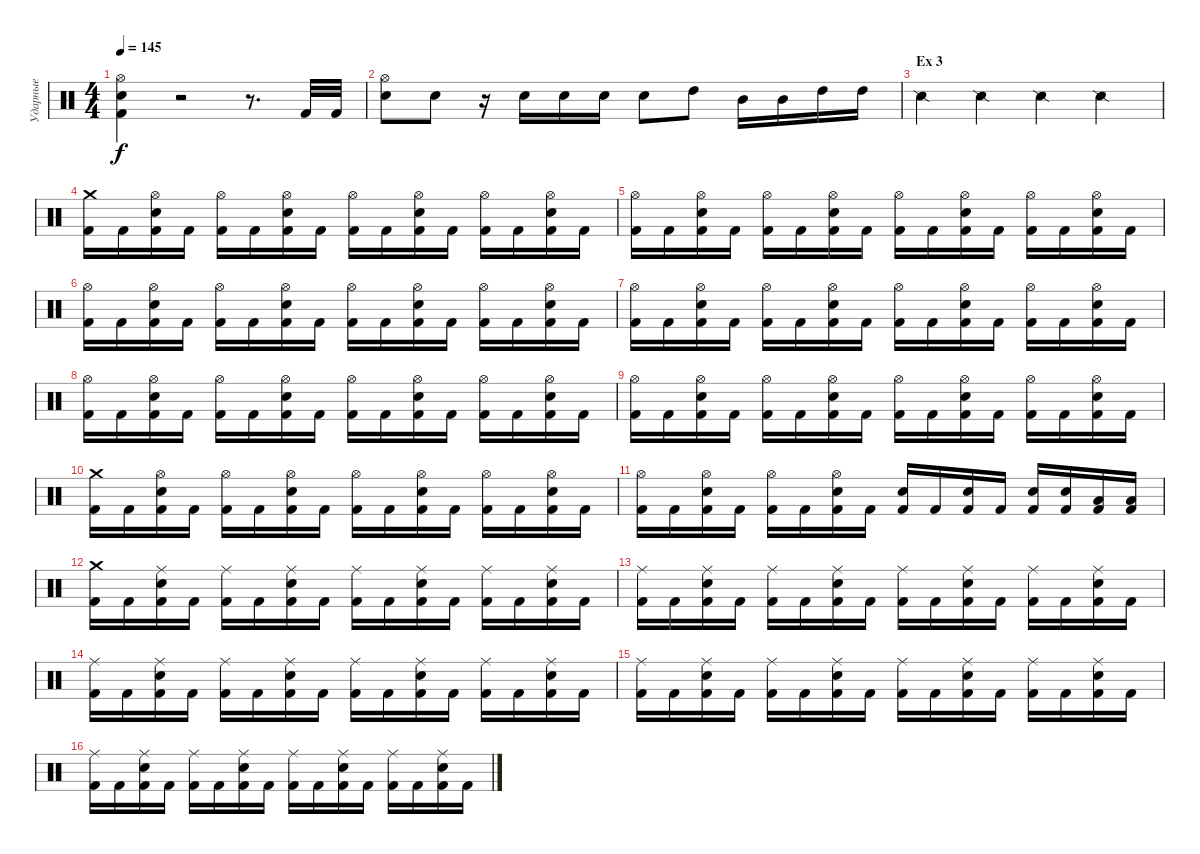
\track ("Ударные" "Ударные") {instrument percussion}
\staff {score}
\articulation defaults
\ts (4 4)
\tempo 145
\clef neutral
\ks c
("Kick (hit) 2" "Snare (hit) 2" "Hi-Hat (open)").4{dy f} r.2 r.8{d} "Kick (hit) 2".32 "Kick (hit) 2".32 |
("Snare (hit) 2" "Hi-Hat (open)").8 "Snare (hit) 2".8 r.16 "Snare (hit) 2".16 "Snare (hit) 2".16 "Snare (hit) 2".16 "Snare (hit) 2".8 "High Tom (hit)".8 "Mid Tom (hit)".16 "Mid Tom (hit)".16 "High Tom (hit)".16 "High Tom (hit)".16 |
\section ("" "Ex 3")
"Snare (side stick) 2".4 "Snare (side stick) 2".4 "Snare (side stick) 2".4 "Snare (side stick) 2".4 |
("Kick (hit) 2" "Crash medium (hit)").16 "Kick (hit) 2".16 ("Kick (hit) 2" "Snare (hit) 2" "Hi-Hat (open)").16 "Kick (hit) 2".16 ("Kick (hit) 2" "Hi-Hat (open)").16 "Kick (hit) 2".16 ("Kick (hit) 2" "Snare (hit) 2" "Hi-Hat (open)").16 "Kick (hit) 2".16 ("Kick (hit) 2" "Hi-Hat (open)").16 "Kick (hit) 2".16 ("Kick (hit) 2" "Snare (hit) 2" "Hi-Hat (open)").16 "Kick (hit) 2".16 ("Kick (hit) 2" "Hi-Hat (open)").16 "Kick (hit) 2".16 ("Kick (hit) 2" "Snare (hit) 2" "Hi-Hat (open)").16 "Kick (hit) 2".16 |
("Hi-Hat (open)" "Kick (hit) 2").16 "Kick (hit) 2".16 ("Kick (hit) 2" "Snare (hit) 2" "Hi-Hat (open)").16 "Kick (hit) 2".16 ("Kick (hit) 2" "Hi-Hat (open)").16 "Kick (hit) 2".16 ("Kick (hit) 2" "Snare (hit) 2" "Hi-Hat (open)").16 "Kick (hit) 2".16 ("Kick (hit) 2" "Hi-Hat (open)").16 "Kick (hit) 2".16 ("Kick (hit) 2" "Snare (hit) 2" "Hi-Hat (open)").16 "Kick (hit) 2".16 ("Kick (hit) 2" "Hi-Hat (open)").16 "Kick (hit) 2".16 ("Kick (hit) 2" "Snare (hit) 2" "Hi-Hat (open)").16 "Kick (hit) 2".16 |
("Hi-Hat (open)" "Kick (hit) 2").16 "Kick (hit) 2".16 ("Kick (hit) 2" "Snare (hit) 2" "Hi-Hat (open)").16 "Kick (hit) 2".16 ("Kick (hit) 2" "Hi-Hat (open)").16 "Kick (hit) 2".16 ("Kick (hit) 2" "Snare (hit) 2" "Hi-Hat (open)").16 "Kick (hit) 2".16 ("Kick (hit) 2" "Hi-Hat (open)").16 "Kick (hit) 2".16 ("Kick (hit) 2" "Snare (hit) 2" "Hi-Hat (open)").16 "Kick (hit) 2".16 ("Kick (hit) 2" "Hi-Hat (open)").16 "Kick (hit) 2".16 ("Kick (hit) 2" "Snare (hit) 2" "Hi-Hat (open)").16 "Kick (hit) 2".16 |
("Hi-Hat (open)" "Kick (hit) 2").16 "Kick (hit) 2".16 ("Kick (hit) 2" "Snare (hit) 2" "Hi-Hat (open)").16 "Kick (hit) 2".16 ("Kick (hit) 2" "Hi-Hat (open)").16 "Kick (hit) 2".16 ("Kick (hit) 2" "Snare (hit) 2" "Hi-Hat (open)").16 "Kick (hit) 2".16 ("Kick (hit) 2" "Hi-Hat (open)").16 "Kick (hit) 2".16 ("Kick (hit) 2" "Snare (hit) 2" "Hi-Hat (open)").16 "Kick (hit) 2".16 ("Kick (hit) 2" "Hi-Hat (open)").16 "Kick (hit) 2".16 ("Kick (hit) 2" "Snare (hit) 2" "Hi-Hat (open)").16 "Kick (hit) 2".16 |
("Hi-Hat (open)" "Kick (hit) 2").16 "Kick (hit) 2".16 ("Kick (hit) 2" "Snare (hit) 2" "Hi-Hat (open)").16 "Kick (hit) 2".16 ("Kick (hit) 2" "Hi-Hat (open)").16 "Kick (hit) 2".16 ("Kick (hit) 2" "Snare (hit) 2" "Hi-Hat (open)").16 "Kick (hit) 2".16 ("Kick (hit) 2" "Hi-Hat (open)").16 "Kick (hit) 2".16 ("Kick (hit) 2" "Snare (hit) 2" "Hi-Hat (open)").16 "Kick (hit) 2".16 ("Kick (hit) 2" "Hi-Hat (open)").16 "Kick (hit) 2".16 ("Kick (hit) 2" "Snare (hit) 2" "Hi-Hat (open)").16 "Kick (hit) 2".16 |
("Hi-Hat (open)" "Kick (hit) 2").16 "Kick (hit) 2".16 ("Kick (hit) 2" "Snare (hit) 2" "Hi-Hat (open)").16 "Kick (hit) 2".16 ("Kick (hit) 2" "Hi-Hat (open)").16 "Kick (hit) 2".16 ("Kick (hit) 2" "Snare (hit) 2" "Hi-Hat (open)").16 "Kick (hit) 2".16 ("Kick (hit) 2" "Hi-Hat (open)").16 "Kick (hit) 2".16 ("Kick (hit) 2" "Snare (hit) 2" "Hi-Hat (open)").16 "Kick (hit) 2".16 ("Kick (hit) 2" "Hi-Hat (open)").16 "Kick (hit) 2".16 ("Kick (hit) 2" "Snare (hit) 2" "Hi-Hat (open)").16 "Kick (hit) 2".16 |
("Crash medium (hit)" "Kick (hit) 2").16 "Kick (hit) 2".16 ("Kick (hit) 2" "Snare (hit) 2" "Hi-Hat (open)").16 "Kick (hit) 2".16 ("Kick (hit) 2" "Hi-Hat (open)").16 "Kick (hit) 2".16 ("Kick (hit) 2" "Snare (hit) 2" "Hi-Hat (open)").16 "Kick (hit) 2".16 ("Kick (hit) 2" "Hi-Hat (open)").16 "Kick (hit) 2".16 ("Kick (hit) 2" "Snare (hit) 2" "Hi-Hat (open)").16 "Kick (hit) 2".16 ("Kick (hit) 2" "Hi-Hat (open)").16 "Kick (hit) 2".16 ("Kick (hit) 2" "Snare (hit) 2" "Hi-Hat (open)").16 "Kick (hit) 2".16 |
("Hi-Hat (open)" "Kick (hit) 2").16 "Kick (hit) 2".16 ("Kick (hit) 2" "Snare (hit) 2" "Hi-Hat (open)").16 "Kick (hit) 2".16 ("Kick (hit) 2" "Hi-Hat (open)").16 "Kick (hit) 2".16 ("Kick (hit) 2" "Snare (hit) 2" "Hi-Hat (open)").16 "Kick (hit) 2".16 ("Snare (hit) 2" "Kick (hit) 2").16 "Kick (hit) 2".16 ("Kick (hit) 2" "Snare (hit) 2").16 "Kick (hit) 2".16 ("Snare (hit) 2" "Kick (hit) 2").16 ("Snare (hit) 2" "Kick (hit) 2").16 ("Low Tom (hit)" "Kick (hit) 2").16 ("Low Tom (hit)" "Kick (hit) 2").16 |
("Kick (hit) 2" "Crash medium (hit)").16 "Kick (hit) 2".16 ("Kick (hit) 2" "Snare (hit) 2" "Ride (middle)").16 "Kick (hit) 2".16 ("Kick (hit) 2" "Ride (middle)").16 "Kick (hit) 2".16 ("Kick (hit) 2" "Snare (hit) 2" "Ride (middle)").16 "Kick (hit) 2".16 ("Kick (hit) 2" "Ride (middle)").16 "Kick (hit) 2".16 ("Kick (hit) 2" "Snare (hit) 2" "Ride (middle)").16 "Kick (hit) 2".16 ("Kick (hit) 2" "Ride (middle)").16 "Kick (hit) 2".16 ("Kick (hit) 2" "Snare (hit) 2" "Ride (middle)").16 "Kick (hit) 2".16 |
("Ride (middle)" "Kick (hit) 2").16 "Kick (hit) 2".16 ("Kick (hit) 2" "Snare (hit) 2" "Ride (middle)").16 "Kick (hit) 2".16 ("Kick (hit) 2" "Ride (middle)").16 "Kick (hit) 2".16 ("Kick (hit) 2" "Snare (hit) 2" "Ride (middle)").16 "Kick (hit) 2".16 ("Kick (hit) 2" "Ride (middle)").16 "Kick (hit) 2".16 ("Kick (hit) 2" "Snare (hit) 2" "Ride (middle)").16 "Kick (hit) 2".16 ("Kick (hit) 2" "Ride (middle)").16 "Kick (hit) 2".16 ("Kick (hit) 2" "Snare (hit) 2" "Ride (middle)").16 "Kick (hit) 2".16 |
("Ride (middle)" "Kick (hit) 2").16 "Kick (hit) 2".16 ("Kick (hit) 2" "Snare (hit) 2" "Ride (middle)").16 "Kick (hit) 2".16 ("Kick (hit) 2" "Ride (middle)").16 "Kick (hit) 2".16 ("Kick (hit) 2" "Snare (hit) 2" "Ride (middle)").16 "Kick (hit) 2".16 ("Kick (hit) 2" "Ride (middle)").16 "Kick (hit) 2".16 ("Kick (hit) 2" "Snare (hit) 2" "Ride (middle)").16 "Kick (hit) 2".16 ("Kick (hit) 2" "Ride (middle)").16 "Kick (hit) 2".16 ("Kick (hit) 2" "Snare (hit) 2" "Ride (middle)").16 "Kick (hit) 2".16 |
("Ride (middle)" "Kick (hit) 2").16 "Kick (hit) 2".16 ("Kick (hit) 2" "Snare (hit) 2" "Ride (middle)").16 "Kick (hit) 2".16 ("Kick (hit) 2" "Ride (middle)").16 "Kick (hit) 2".16 ("Kick (hit) 2" "Snare (hit) 2" "Ride (middle)").16 "Kick (hit) 2".16 ("Kick (hit) 2" "Ride (middle)").16 "Kick (hit) 2".16 ("Kick (hit) 2" "Snare (hit) 2" "Ride (middle)").16 "Kick (hit) 2".16 ("Kick (hit) 2" "Ride (middle)").16 "Kick (hit) 2".16 ("Kick (hit) 2" "Snare (hit) 2" "Ride (middle)").16 "Kick (hit) 2".16 |
("Ride (middle)" "Kick (hit) 2").16 "Kick (hit) 2".16 ("Kick (hit) 2" "Snare (hit) 2" "Ride (middle)").16 "Kick (hit) 2".16 ("Kick (hit) 2" "Ride (middle)").16 "Kick (hit) 2".16 ("Kick (hit) 2" "Snare (hit) 2" "Ride (middle)").16 "Kick (hit) 2".16 ("Kick (hit) 2" "Ride (middle)").16 "Kick (hit) 2".16 ("Kick (hit) 2" "Snare (hit) 2" "Ride (middle)").16 "Kick (hit) 2".16 ("Kick (hit) 2" "Ride (middle)").16 "Kick (hit) 2".16 ("Kick (hit) 2" "Snare (hit) 2" "Ride (middle)").16 "Kick (hit) 2".16
